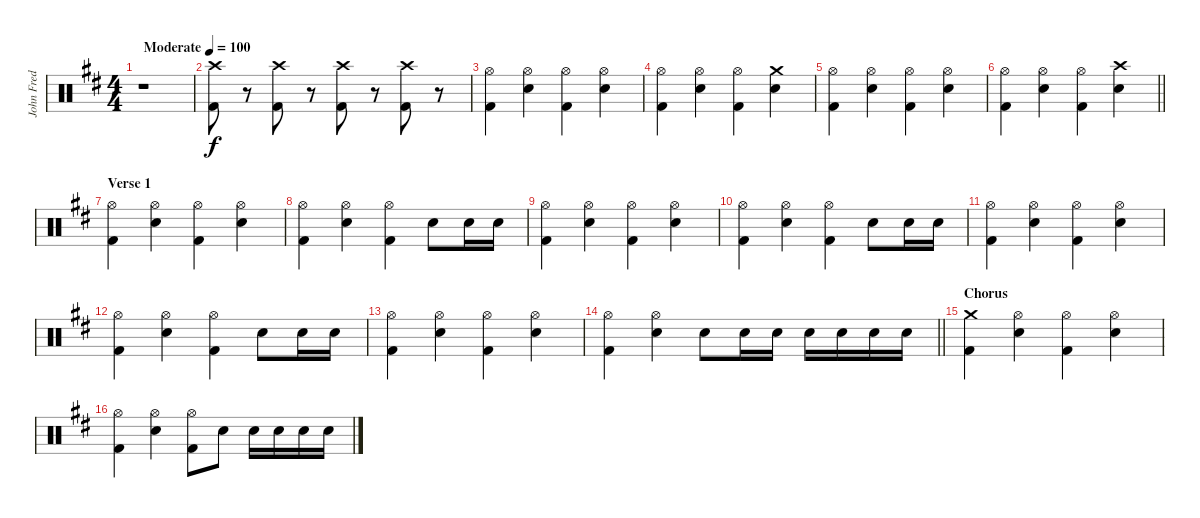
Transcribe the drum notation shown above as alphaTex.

\track ("John Fred Young" "John Fred ") {instrument percussion}
\staff {score}
\articulation defaults
\ts (4 4)
\tempo (100 "Moderate")
\clef neutral
\ks bminor
r.1{dy f} |
("Crash high (hit)" "Kick (hit) 2").8 r.8 ("Crash high (hit)" "Kick (hit) 2").8 r.8 ("Crash high (hit)" "Kick (hit) 2").8 r.8 ("Crash high (hit)" "Kick (hit) 2").8 r.8 |
("Hi-Hat (open)" "Kick (hit) 2").4 ("Hi-Hat (open)" "Snare (hit) 2").4 ("Hi-Hat (open)" "Kick (hit) 2").4 ("Hi-Hat (open)" "Snare (hit) 2").4 |
("Hi-Hat (open)" "Kick (hit) 2").4 ("Hi-Hat (open)" "Snare (hit) 2").4 ("Hi-Hat (open)" "Kick (hit) 2").4 ("Crash medium (hit)" "Snare (hit) 2").4 |
("Hi-Hat (open)" "Kick (hit) 2").4 ("Hi-Hat (open)" "Snare (hit) 2").4 ("Hi-Hat (open)" "Kick (hit) 2").4 ("Hi-Hat (open)" "Snare (hit) 2").4 |
\barLineRight lightlight
("Hi-Hat (open)" "Kick (hit) 2").4 ("Hi-Hat (open)" "Snare (hit) 2").4 ("Hi-Hat (open)" "Kick (hit) 2").4 ("Crash high (hit)" "Snare (hit) 2").4 |
\section ("" "Verse 1")
("Hi-Hat (open)" "Kick (hit) 2").4 ("Hi-Hat (open)" "Snare (hit) 2").4 ("Hi-Hat (open)" "Kick (hit) 2").4 ("Hi-Hat (open)" "Snare (hit) 2").4 |
("Hi-Hat (open)" "Kick (hit) 2").4 ("Hi-Hat (open)" "Snare (hit) 2").4 ("Hi-Hat (open)" "Kick (hit) 2").4 "Snare (hit) 2".8 "Snare (hit) 2".16 "Snare (hit) 2".16 |
("Hi-Hat (open)" "Kick (hit) 2").4 ("Hi-Hat (open)" "Snare (hit) 2").4 ("Hi-Hat (open)" "Kick (hit) 2").4 ("Hi-Hat (open)" "Snare (hit) 2").4 |
("Hi-Hat (open)" "Kick (hit) 2").4 ("Hi-Hat (open)" "Snare (hit) 2").4 ("Hi-Hat (open)" "Kick (hit) 2").4 "Snare (hit) 2".8 "Snare (hit) 2".16 "Snare (hit) 2".16 |
("Hi-Hat (open)" "Kick (hit) 2").4 ("Hi-Hat (open)" "Snare (hit) 2").4 ("Hi-Hat (open)" "Kick (hit) 2").4 ("Hi-Hat (open)" "Snare (hit) 2").4 |
("Hi-Hat (open)" "Kick (hit) 2").4 ("Hi-Hat (open)" "Snare (hit) 2").4 ("Hi-Hat (open)" "Kick (hit) 2").4 "Snare (hit) 2".8 "Snare (hit) 2".16 "Snare (hit) 2".16 |
("Hi-Hat (open)" "Kick (hit) 2").4 ("Hi-Hat (open)" "Snare (hit) 2").4 ("Hi-Hat (open)" "Kick (hit) 2").4 ("Hi-Hat (open)" "Snare (hit) 2").4 |
\barLineRight lightlight
("Hi-Hat (open)" "Kick (hit) 2").4 ("Hi-Hat (open)" "Snare (hit) 2").4 "Snare (hit) 2".8 "Snare (hit) 2".16 "Snare (hit) 2".16 "Snare (hit) 2".16 "Snare (hit) 2".16 "Snare (hit) 2".16 "Snare (hit) 2".16 |
\section ("" "Chorus")
("Crash medium (hit)" "Kick (hit) 2").4 ("Hi-Hat (open)" "Snare (hit) 2").4 ("Hi-Hat (open)" "Kick (hit) 2").4 ("Hi-Hat (open)" "Snare (hit) 2").4 |
("Hi-Hat (open)" "Kick (hit) 2").4 ("Hi-Hat (open)" "Snare (hit) 2").4 ("Hi-Hat (open)" "Kick (hit) 2").8 "Snare (hit) 2".8 "Snare (hit) 2".16 "Snare (hit) 2".16 "Snare (hit) 2".16 "Snare (hit) 2".16
